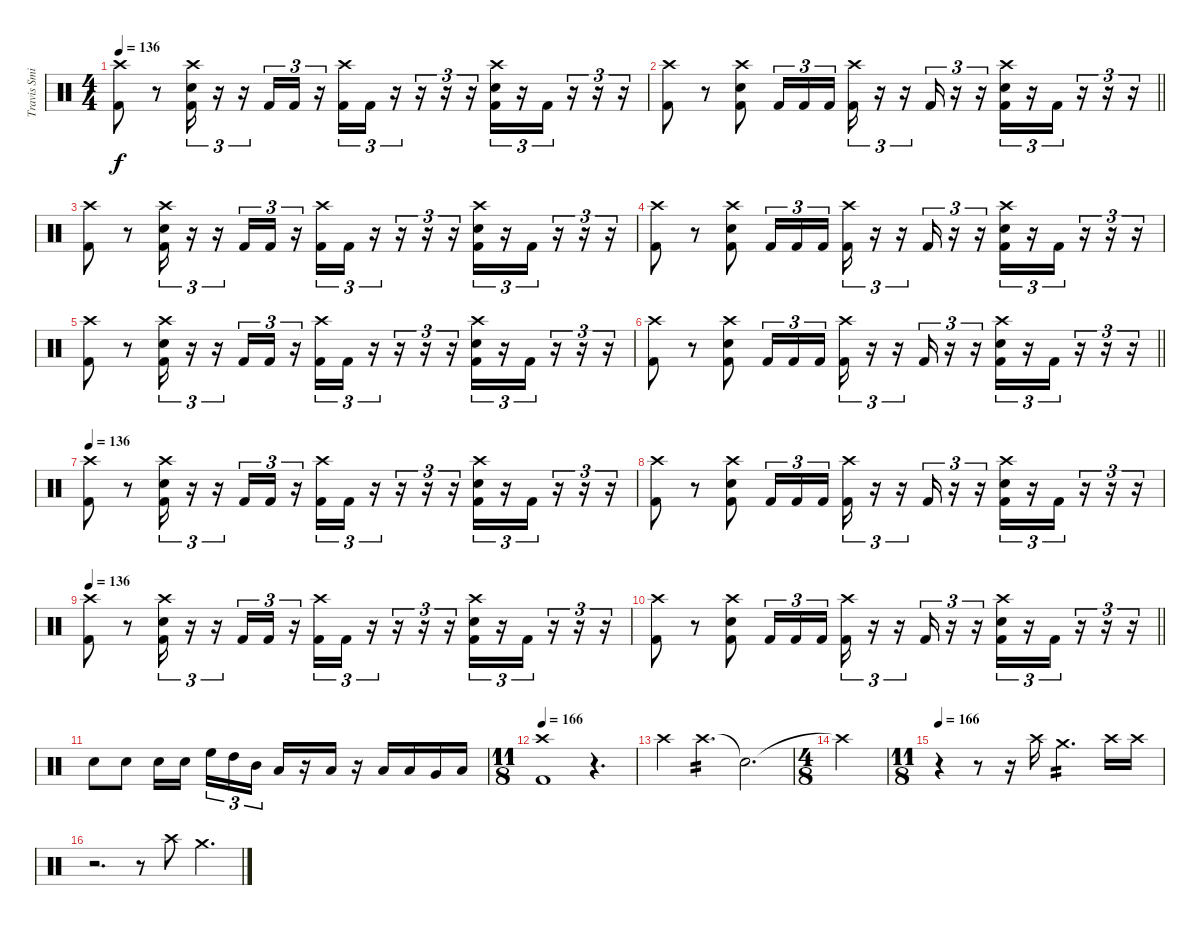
\track ("Travis Smith" "Travis Smi") {instrument percussion}
\staff {score}
\articulation defaults
\ts (4 4)
\tempo 136
\clef neutral
\ks c
("Crash high (hit)" "Kick (hit) 2").8{dy f} r.8 ("Crash high (hit)" "Snare (hit) 2" "Kick (hit) 2").16{tu (3 2)} r.16{tu (3 2)} r.16{tu (3 2)} "Kick (hit) 2".16{tu (3 2)} "Kick (hit) 2".16{tu (3 2)} r.16{tu (3 2)} ("Crash high (hit)" "Kick (hit) 2").16{tu (3 2)} "Kick (hit) 2".16{tu (3 2)} r.16{tu (3 2)} r.16{tu (3 2)} r.16{tu (3 2)} r.16{tu (3 2)} ("Crash high (hit)" "Snare (hit) 2" "Kick (hit) 2").16{tu (3 2)} r.16{tu (3 2)} "Kick (hit) 2".16{tu (3 2)} r.16{tu (3 2)} r.16{tu (3 2)} r.16{tu (3 2)} |
\barLineRight lightlight
("Crash high (hit)" "Kick (hit) 2").8 r.8 ("Crash high (hit)" "Snare (hit) 2" "Kick (hit) 2").8 "Kick (hit) 2".16{tu (3 2)} "Kick (hit) 2".16{tu (3 2)} "Kick (hit) 2".16{tu (3 2)} ("Crash high (hit)" "Kick (hit) 2").16{tu (3 2)} r.16{tu (3 2)} r.16{tu (3 2)} "Kick (hit) 2".16{tu (3 2)} r.16{tu (3 2)} r.16{tu (3 2)} ("Crash high (hit)" "Snare (hit) 2" "Kick (hit) 2").16{tu (3 2)} r.16{tu (3 2)} "Kick (hit) 2".16{tu (3 2)} r.16{tu (3 2)} r.16{tu (3 2)} r.16{tu (3 2)} |
\section ("" "")
("Crash high (hit)" "Kick (hit) 2").8 r.8 ("Crash high (hit)" "Snare (hit) 2" "Kick (hit) 2").16{tu (3 2)} r.16{tu (3 2)} r.16{tu (3 2)} "Kick (hit) 2".16{tu (3 2)} "Kick (hit) 2".16{tu (3 2)} r.16{tu (3 2)} ("Crash high (hit)" "Kick (hit) 2").16{tu (3 2)} "Kick (hit) 2".16{tu (3 2)} r.16{tu (3 2)} r.16{tu (3 2)} r.16{tu (3 2)} r.16{tu (3 2)} ("Crash high (hit)" "Snare (hit) 2" "Kick (hit) 2").16{tu (3 2)} r.16{tu (3 2)} "Kick (hit) 2".16{tu (3 2)} r.16{tu (3 2)} r.16{tu (3 2)} r.16{tu (3 2)} |
("Crash high (hit)" "Kick (hit) 2").8 r.8 ("Crash high (hit)" "Snare (hit) 2" "Kick (hit) 2").8 "Kick (hit) 2".16{tu (3 2)} "Kick (hit) 2".16{tu (3 2)} "Kick (hit) 2".16{tu (3 2)} ("Crash high (hit)" "Kick (hit) 2").16{tu (3 2)} r.16{tu (3 2)} r.16{tu (3 2)} "Kick (hit) 2".16{tu (3 2)} r.16{tu (3 2)} r.16{tu (3 2)} ("Crash high (hit)" "Snare (hit) 2" "Kick (hit) 2").16{tu (3 2)} r.16{tu (3 2)} "Kick (hit) 2".16{tu (3 2)} r.16{tu (3 2)} r.16{tu (3 2)} r.16{tu (3 2)} |
("Crash high (hit)" "Kick (hit) 2").8 r.8 ("Crash high (hit)" "Snare (hit) 2" "Kick (hit) 2").16{tu (3 2)} r.16{tu (3 2)} r.16{tu (3 2)} "Kick (hit) 2".16{tu (3 2)} "Kick (hit) 2".16{tu (3 2)} r.16{tu (3 2)} ("Crash high (hit)" "Kick (hit) 2").16{tu (3 2)} "Kick (hit) 2".16{tu (3 2)} r.16{tu (3 2)} r.16{tu (3 2)} r.16{tu (3 2)} r.16{tu (3 2)} ("Crash high (hit)" "Snare (hit) 2" "Kick (hit) 2").16{tu (3 2)} r.16{tu (3 2)} "Kick (hit) 2".16{tu (3 2)} r.16{tu (3 2)} r.16{tu (3 2)} r.16{tu (3 2)} |
\barLineRight lightlight
("Crash high (hit)" "Kick (hit) 2").8 r.8 ("Crash high (hit)" "Snare (hit) 2" "Kick (hit) 2").8 "Kick (hit) 2".16{tu (3 2)} "Kick (hit) 2".16{tu (3 2)} "Kick (hit) 2".16{tu (3 2)} ("Crash high (hit)" "Kick (hit) 2").16{tu (3 2)} r.16{tu (3 2)} r.16{tu (3 2)} "Kick (hit) 2".16{tu (3 2)} r.16{tu (3 2)} r.16{tu (3 2)} ("Crash high (hit)" "Snare (hit) 2" "Kick (hit) 2").16{tu (3 2)} r.16{tu (3 2)} "Kick (hit) 2".16{tu (3 2)} r.16{tu (3 2)} r.16{tu (3 2)} r.16{tu (3 2)} |
\section ("" "")
\tempo 136
("Crash high (hit)" "Kick (hit) 2").8 r.8 ("Crash high (hit)" "Snare (hit) 2" "Kick (hit) 2").16{tu (3 2)} r.16{tu (3 2)} r.16{tu (3 2)} "Kick (hit) 2".16{tu (3 2)} "Kick (hit) 2".16{tu (3 2)} r.16{tu (3 2)} ("Crash high (hit)" "Kick (hit) 2").16{tu (3 2)} "Kick (hit) 2".16{tu (3 2)} r.16{tu (3 2)} r.16{tu (3 2)} r.16{tu (3 2)} r.16{tu (3 2)} ("Crash high (hit)" "Snare (hit) 2" "Kick (hit) 2").16{tu (3 2)} r.16{tu (3 2)} "Kick (hit) 2".16{tu (3 2)} r.16{tu (3 2)} r.16{tu (3 2)} r.16{tu (3 2)} |
("Crash high (hit)" "Kick (hit) 2").8 r.8 ("Crash high (hit)" "Snare (hit) 2" "Kick (hit) 2").8 "Kick (hit) 2".16{tu (3 2)} "Kick (hit) 2".16{tu (3 2)} "Kick (hit) 2".16{tu (3 2)} ("Crash high (hit)" "Kick (hit) 2").16{tu (3 2)} r.16{tu (3 2)} r.16{tu (3 2)} "Kick (hit) 2".16{tu (3 2)} r.16{tu (3 2)} r.16{tu (3 2)} ("Crash high (hit)" "Snare (hit) 2" "Kick (hit) 2").16{tu (3 2)} r.16{tu (3 2)} "Kick (hit) 2".16{tu (3 2)} r.16{tu (3 2)} r.16{tu (3 2)} r.16{tu (3 2)} |
\tempo 136
("Crash high (hit)" "Kick (hit) 2").8 r.8 ("Crash high (hit)" "Snare (hit) 2" "Kick (hit) 2").16{tu (3 2)} r.16{tu (3 2)} r.16{tu (3 2)} "Kick (hit) 2".16{tu (3 2)} "Kick (hit) 2".16{tu (3 2)} r.16{tu (3 2)} ("Crash high (hit)" "Kick (hit) 2").16{tu (3 2)} "Kick (hit) 2".16{tu (3 2)} r.16{tu (3 2)} r.16{tu (3 2)} r.16{tu (3 2)} r.16{tu (3 2)} ("Crash high (hit)" "Snare (hit) 2" "Kick (hit) 2").16{tu (3 2)} r.16{tu (3 2)} "Kick (hit) 2".16{tu (3 2)} r.16{tu (3 2)} r.16{tu (3 2)} r.16{tu (3 2)} |
\barLineRight lightlight
("Crash high (hit)" "Kick (hit) 2").8 r.8 ("Crash high (hit)" "Snare (hit) 2" "Kick (hit) 2").8 "Kick (hit) 2".16{tu (3 2)} "Kick (hit) 2".16{tu (3 2)} "Kick (hit) 2".16{tu (3 2)} ("Crash high (hit)" "Kick (hit) 2").16{tu (3 2)} r.16{tu (3 2)} r.16{tu (3 2)} "Kick (hit) 2".16{tu (3 2)} r.16{tu (3 2)} r.16{tu (3 2)} ("Crash high (hit)" "Snare (hit) 2" "Kick (hit) 2").16{tu (3 2)} r.16{tu (3 2)} "Kick (hit) 2".16{tu (3 2)} r.16{tu (3 2)} r.16{tu (3 2)} r.16{tu (3 2)} |
\section ("" "")
"Snare (hit) 2".8 "Snare (hit) 2".8 "Snare (hit) 2".16 "Snare (hit) 2".16 "High Floor Tom (hit)".16{tu (3 2)} "High Tom (hit)".16{tu (3 2)} "Mid Tom (hit)".16{tu (3 2)} "Low Tom (hit)".16 r.16 "Low Tom (hit)".16 r.16 "Low Tom (hit)".16 "Low Tom (hit)".16 "Very Low Tom (hit)".16 "Low Floor Tom (hit)".16 |
\ts (11 8)
\tempo 166
("Crash high (hit)" "Kick (hit) 2").1 r.4{d} |
"Crash high (hit)".4{volume 0} "Crash high (hit)".4{d tp 2 volume 16} "Snare (hit)"{t}.2{d} |
\ts (4 8)
"Crash high (hit)"{t}.2 |
\ts (11 8)
\tempo 166
r.4 r.8 r.16 "Crash high (hit)".16{volume 0} "Crash medium (hit)".2{d tp 2 volume 16} "Crash high (hit)".16{volume 0} "Crash high (hit)".16{volume 16} |
r.2{d} r.8 "Crash high (hit)".8{volume 0} "Crash medium (hit)".4{d volume 16}
